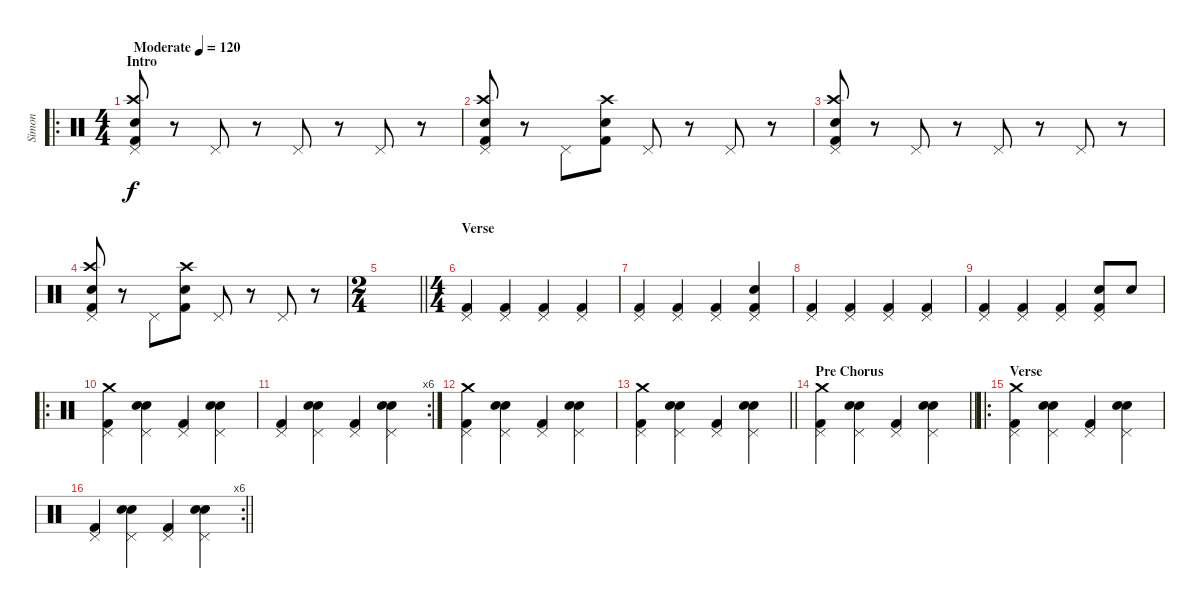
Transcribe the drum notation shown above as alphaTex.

\track ("Simon" "Simon") {instrument percussion}
\staff {score}
\articulation defaults
\ro
\ts (4 4)
\section ("" "Intro")
\tempo (120 "Moderate")
\clef neutral
\ks c
("Kick (hit) 2" "Snare (hit) 2" "Crash high (hit)" "Pedal Hi-Hat (hit)").8{dy f} r.8 "Pedal Hi-Hat (hit)".8 r.8 "Pedal Hi-Hat (hit)".8 r.8 "Pedal Hi-Hat (hit)".8 r.8 |
("Snare (hit) 2" "Kick (hit) 2" "Crash high (hit)" "Pedal Hi-Hat (hit)").8 r.8 "Pedal Hi-Hat (hit)".8 ("Kick (hit) 2" "Snare (hit) 2" "Crash high (hit)").8 "Pedal Hi-Hat (hit)".8 r.8 "Pedal Hi-Hat (hit)".8 r.8 |
("Kick (hit) 2" "Snare (hit) 2" "Crash high (hit)" "Pedal Hi-Hat (hit)").8 r.8 "Pedal Hi-Hat (hit)".8 r.8 "Pedal Hi-Hat (hit)".8 r.8 "Pedal Hi-Hat (hit)".8 r.8 |
("Kick (hit) 2" "Snare (hit) 2" "Crash high (hit)" "Pedal Hi-Hat (hit)").8 r.8 "Pedal Hi-Hat (hit)".8 ("Kick (hit) 2" "Snare (hit) 2" "Crash high (hit)").8 "Pedal Hi-Hat (hit)".8 r.8 "Pedal Hi-Hat (hit)".8 r.8 |
\ts (2 4)
\barLineRight lightlight
|
\ts (4 4)
\section ("" "Verse")
("Kick (hit) 2" "Pedal Hi-Hat (hit)").4 ("Kick (hit) 2" "Pedal Hi-Hat (hit)").4 ("Kick (hit) 2" "Pedal Hi-Hat (hit)").4 ("Kick (hit) 2" "Pedal Hi-Hat (hit)").4 |
("Kick (hit) 2" "Pedal Hi-Hat (hit)").4 ("Kick (hit) 2" "Pedal Hi-Hat (hit)").4 ("Kick (hit) 2" "Pedal Hi-Hat (hit)").4 ("Kick (hit) 2" "Electric Snare (hit)" "Pedal Hi-Hat (hit)").4 |
("Kick (hit) 2" "Pedal Hi-Hat (hit)").4 ("Kick (hit) 2" "Pedal Hi-Hat (hit)").4 ("Kick (hit) 2" "Pedal Hi-Hat (hit)").4 ("Kick (hit) 2" "Pedal Hi-Hat (hit)").4 |
("Kick (hit) 2" "Pedal Hi-Hat (hit)").4 ("Kick (hit) 2" "Pedal Hi-Hat (hit)").4 ("Kick (hit) 2" "Pedal Hi-Hat (hit)").4 ("Kick (hit) 2" "Electric Snare (hit)" "Pedal Hi-Hat (hit)").8 "Electric Snare (hit)".8 |
\ro
("Kick (hit) 2" "Crash medium (hit)" "Pedal Hi-Hat (hit)").4 ("Snare (hit) 2" "Electric Snare (hit)" "Pedal Hi-Hat (hit)").4 ("Kick (hit) 2" "Pedal Hi-Hat (hit)").4 ("Snare (hit) 2" "Electric Snare (hit)" "Pedal Hi-Hat (hit)").4 |
\rc 6
("Kick (hit) 2" "Pedal Hi-Hat (hit)").4 ("Snare (hit) 2" "Electric Snare (hit)" "Pedal Hi-Hat (hit)").4 ("Kick (hit) 2" "Pedal Hi-Hat (hit)").4 ("Snare (hit) 2" "Electric Snare (hit)" "Pedal Hi-Hat (hit)").4 |
("Kick (hit) 2" "Crash medium (hit)" "Pedal Hi-Hat (hit)").4 ("Snare (hit) 2" "Electric Snare (hit)" "Pedal Hi-Hat (hit)").4 ("Kick (hit) 2" "Pedal Hi-Hat (hit)").4 ("Snare (hit) 2" "Electric Snare (hit)" "Pedal Hi-Hat (hit)").4 |
\barLineRight lightlight
("Kick (hit) 2" "Crash medium (hit)" "Pedal Hi-Hat (hit)").4 ("Snare (hit) 2" "Electric Snare (hit)" "Pedal Hi-Hat (hit)").4 ("Kick (hit) 2" "Pedal Hi-Hat (hit)").4 ("Snare (hit) 2" "Electric Snare (hit)" "Pedal Hi-Hat (hit)").4 |
\section ("" "Pre Chorus")
\barLineRight lightlight
("Kick (hit) 2" "Crash medium (hit)" "Pedal Hi-Hat (hit)").4 ("Snare (hit) 2" "Electric Snare (hit)" "Pedal Hi-Hat (hit)").4 ("Kick (hit) 2" "Pedal Hi-Hat (hit)").4 ("Snare (hit) 2" "Electric Snare (hit)" "Pedal Hi-Hat (hit)").4 |
\ro
\section ("" "Verse")
("Kick (hit) 2" "Crash medium (hit)" "Pedal Hi-Hat (hit)").4 ("Snare (hit) 2" "Electric Snare (hit)" "Pedal Hi-Hat (hit)").4 ("Kick (hit) 2" "Pedal Hi-Hat (hit)").4 ("Snare (hit) 2" "Electric Snare (hit)" "Pedal Hi-Hat (hit)").4 |
\rc 6
\barLineRight lightlight
("Kick (hit) 2" "Pedal Hi-Hat (hit)").4 ("Snare (hit) 2" "Electric Snare (hit)" "Pedal Hi-Hat (hit)").4 ("Kick (hit) 2" "Pedal Hi-Hat (hit)").4 ("Snare (hit) 2" "Electric Snare (hit)" "Pedal Hi-Hat (hit)").4
